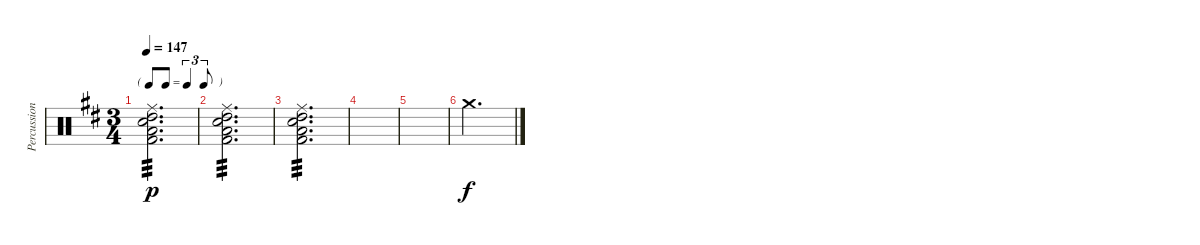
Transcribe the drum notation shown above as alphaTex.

\track ("Percussion" "Percussion") {instrument percussion}
\staff {score}
\articulation defaults
\ts (3 4)
\tf triplet8th
\tempo 147
\clef neutral
\ks d
("Snare (hit) 2" "Ride (middle)" "High Tom (hit)" "Kick (hit) 2" "Low Floor Tom (hit)").2{d tp 3 dy p} |
("Snare (hit) 2" "Ride (middle)" "High Tom (hit)" "Kick (hit) 2" "Low Floor Tom (hit)").2{d tp 3} |
("Snare (hit) 2" "Ride (middle)" "High Tom (hit)" "Kick (hit) 2" "Low Floor Tom (hit)").2{d tp 3} |
|
|
"Crash medium (hit)".2{d dy f}
